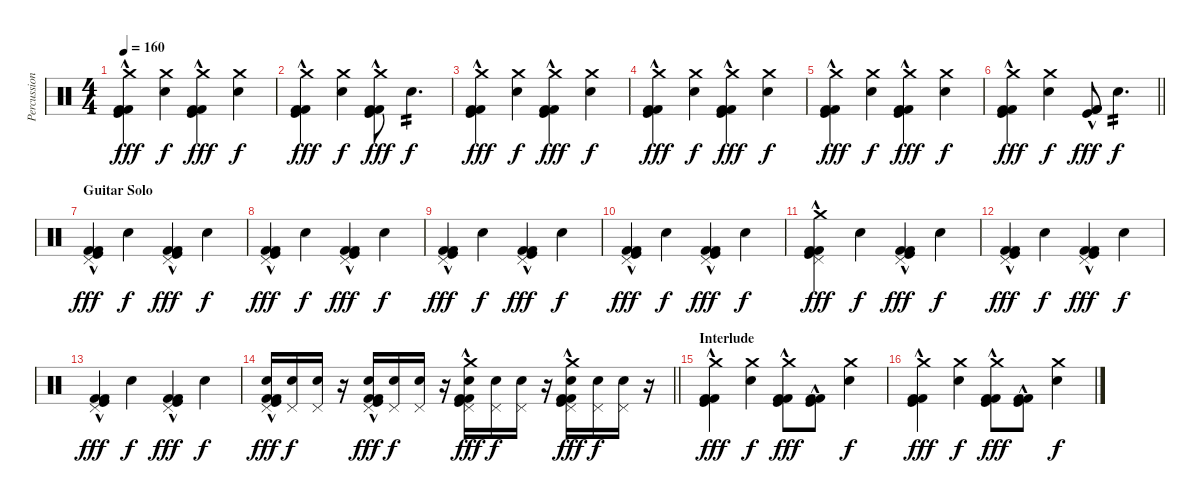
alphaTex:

\track ("Percussion" "Percussion") {instrument percussion}
\staff {score}
\articulation defaults
\ts (4 4)
\tempo 160
\clef neutral
\ks c
("Crash medium (hit)" "Kick (hit) 2"{hac} "Kick (hit)"{hac} "Kick (hit) 2").4{dy fff} ("Crash medium (hit)" "Snare (hit) 2").4{dy f} ("Crash medium (hit)" "Kick (hit) 2"{hac} "Kick (hit)"{hac} "Kick (hit) 2").4{dy fff} ("Crash medium (hit)" "Snare (hit) 2").4{dy f} |
("Crash medium (hit)" "Kick (hit) 2"{hac} "Kick (hit)"{hac} "Kick (hit) 2").4{dy fff} ("Crash medium (hit)" "Snare (hit) 2").4{dy f} ("Crash medium (hit)" "Kick (hit) 2"{hac} "Kick (hit)"{hac} "Kick (hit) 2").8{dy fff} "Snare (hit) 2".4{d tp 2 dy f} |
("Crash medium (hit)" "Kick (hit) 2"{hac} "Kick (hit)"{hac} "Kick (hit) 2").4{dy fff} ("Crash medium (hit)" "Snare (hit) 2").4{dy f} ("Crash medium (hit)" "Kick (hit) 2"{hac} "Kick (hit)"{hac} "Kick (hit) 2").4{dy fff} ("Crash medium (hit)" "Snare (hit) 2").4{dy f} |
("Crash medium (hit)" "Kick (hit) 2"{hac} "Kick (hit)"{hac} "Kick (hit) 2").4{dy fff} ("Crash medium (hit)" "Snare (hit) 2").4{dy f} ("Crash medium (hit)" "Kick (hit) 2"{hac} "Kick (hit)"{hac} "Kick (hit) 2").4{dy fff} ("Crash medium (hit)" "Snare (hit) 2").4{dy f} |
("Crash medium (hit)" "Kick (hit) 2"{hac} "Kick (hit)"{hac} "Kick (hit) 2").4{dy fff} ("Crash medium (hit)" "Snare (hit) 2").4{dy f} ("Crash medium (hit)" "Kick (hit) 2"{hac} "Kick (hit)"{hac} "Kick (hit) 2").4{dy fff} ("Crash medium (hit)" "Snare (hit) 2").4{dy f} |
\barLineRight lightlight
("Crash medium (hit)" "Kick (hit) 2"{hac} "Kick (hit)"{hac} "Kick (hit) 2").4{dy fff} ("Crash medium (hit)" "Snare (hit) 2").4{dy f} ("Kick (hit) 2"{hac} "Kick (hit)"{hac} "Kick (hit) 2").8{dy fff} "Snare (hit) 2".4{d tp 2 dy f} |
\section ("" "Guitar Solo")
("Pedal Hi-Hat (hit)" "Kick (hit) 2"{hac} "Kick (hit)"{hac} "Kick (hit) 2").4{dy fff} "Snare (hit) 2".4{dy f} ("Pedal Hi-Hat (hit)" "Kick (hit) 2"{hac} "Kick (hit)"{hac} "Kick (hit) 2").4{dy fff} "Snare (hit) 2".4{dy f} |
("Pedal Hi-Hat (hit)" "Kick (hit) 2"{hac} "Kick (hit)"{hac} "Kick (hit) 2").4{dy fff} "Snare (hit) 2".4{dy f} ("Pedal Hi-Hat (hit)" "Kick (hit) 2"{hac} "Kick (hit)"{hac} "Kick (hit) 2").4{dy fff} "Snare (hit) 2".4{dy f} |
("Pedal Hi-Hat (hit)" "Kick (hit) 2"{hac} "Kick (hit)"{hac} "Kick (hit) 2").4{dy fff} "Snare (hit) 2".4{dy f} ("Pedal Hi-Hat (hit)" "Kick (hit) 2"{hac} "Kick (hit)"{hac} "Kick (hit) 2").4{dy fff} "Snare (hit) 2".4{dy f} |
("Pedal Hi-Hat (hit)" "Kick (hit) 2"{hac} "Kick (hit)"{hac} "Kick (hit) 2").4{dy fff} "Snare (hit) 2".4{dy f} ("Pedal Hi-Hat (hit)" "Kick (hit) 2"{hac} "Kick (hit)"{hac} "Kick (hit) 2").4{dy fff} "Snare (hit) 2".4{dy f} |
("Crash medium (hit)" "Pedal Hi-Hat (hit)" "Kick (hit) 2"{hac} "Kick (hit)"{hac} "Kick (hit) 2").4{dy fff} "Snare (hit) 2".4{dy f} ("Pedal Hi-Hat (hit)" "Kick (hit) 2"{hac} "Kick (hit)"{hac} "Kick (hit) 2").4{dy fff} "Snare (hit) 2".4{dy f} |
("Pedal Hi-Hat (hit)" "Kick (hit) 2"{hac} "Kick (hit)"{hac} "Kick (hit) 2").4{dy fff} "Snare (hit) 2".4{dy f} ("Pedal Hi-Hat (hit)" "Kick (hit) 2"{hac} "Kick (hit)"{hac} "Kick (hit) 2").4{dy fff} "Snare (hit) 2".4{dy f} |
("Pedal Hi-Hat (hit)" "Kick (hit) 2"{hac} "Kick (hit)"{hac} "Kick (hit) 2").4{dy fff} "Snare (hit) 2".4{dy f} ("Pedal Hi-Hat (hit)" "Kick (hit) 2"{hac} "Kick (hit)"{hac} "Kick (hit) 2").4{dy fff} "Snare (hit) 2".4{dy f} |
\barLineRight lightlight
("Snare (hit) 2" "Pedal Hi-Hat (hit)" "Kick (hit) 2"{hac} "Kick (hit)"{hac} "Kick (hit) 2"{hac}).16{dy fff} ("Snare (hit) 2" "Pedal Hi-Hat (hit)").16{dy f} ("Snare (hit) 2" "Pedal Hi-Hat (hit)").16 r.16 ("Snare (hit) 2" "Pedal Hi-Hat (hit)" "Kick (hit) 2"{hac} "Kick (hit)"{hac} "Kick (hit) 2"{hac}).16{dy fff} ("Snare (hit) 2" "Pedal Hi-Hat (hit)").16{dy f} ("Snare (hit) 2" "Pedal Hi-Hat (hit)").16 r.16 ("Crash medium (hit)" "Snare (hit) 2" "Pedal Hi-Hat (hit)" "Kick (hit) 2"{hac} "Kick (hit)"{hac} "Kick (hit) 2"{hac}).16{dy fff} ("Snare (hit) 2" "Pedal Hi-Hat (hit)").16{dy f} ("Snare (hit) 2" "Pedal Hi-Hat (hit)").16 r.16 ("Crash medium (hit)" "Snare (hit) 2" "Pedal Hi-Hat (hit)" "Kick (hit) 2"{hac} "Kick (hit)"{hac} "Kick (hit) 2"{hac}).16{dy fff} ("Snare (hit) 2" "Pedal Hi-Hat (hit)").16{dy f} ("Snare (hit) 2" "Pedal Hi-Hat (hit)").16 r.16 |
\section ("" "Interlude")
("Crash medium (hit)" "Kick (hit) 2"{hac} "Kick (hit)"{hac} "Kick (hit) 2").4{dy fff} ("Crash medium (hit)" "Snare (hit) 2").4{dy f} ("Crash medium (hit)" "Kick (hit) 2"{hac} "Kick (hit)"{hac} "Kick (hit) 2").8{dy fff} ("Kick (hit) 2"{hac} "Kick (hit)"{hac} "Kick (hit) 2").8 ("Crash medium (hit)" "Snare (hit) 2").4{dy f} |
("Crash medium (hit)" "Kick (hit) 2"{hac} "Kick (hit)"{hac} "Kick (hit) 2").4{dy fff} ("Crash medium (hit)" "Snare (hit) 2").4{dy f} ("Crash medium (hit)" "Kick (hit) 2"{hac} "Kick (hit)"{hac} "Kick (hit) 2").8{dy fff} ("Kick (hit) 2"{hac} "Kick (hit)"{hac} "Kick (hit) 2").8 ("Crash medium (hit)" "Snare (hit) 2").4{dy f}
